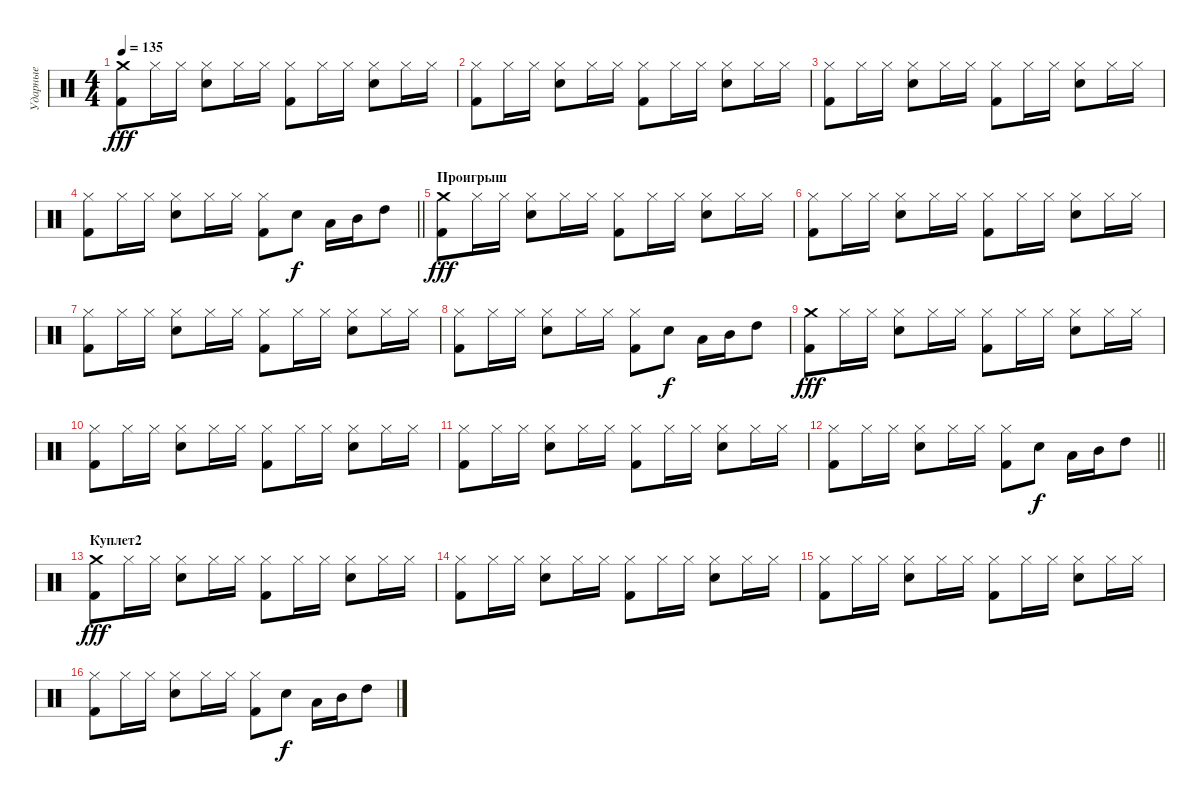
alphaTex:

\track ("Ударные" "Ударные") {instrument percussion}
\staff {score}
\articulation defaults
\ts (4 4)
\tempo 135
\clef neutral
\ks c
("Crash medium (hit)" "Kick (hit) 2").8{dy fff} "Hi-Hat (closed)".16 "Hi-Hat (closed)".16 ("Hi-Hat (closed)" "Electric Snare (hit)").8 "Hi-Hat (closed)".16 "Hi-Hat (closed)".16 ("Hi-Hat (closed)" "Kick (hit) 2").8 "Hi-Hat (closed)".16 "Hi-Hat (closed)".16 ("Hi-Hat (closed)" "Electric Snare (hit)").8 "Hi-Hat (closed)".16 "Hi-Hat (closed)".16 |
("Hi-Hat (closed)" "Kick (hit) 2").8 "Hi-Hat (closed)".16 "Hi-Hat (closed)".16 ("Hi-Hat (closed)" "Electric Snare (hit)").8 "Hi-Hat (closed)".16 "Hi-Hat (closed)".16 ("Hi-Hat (closed)" "Kick (hit) 2").8 "Hi-Hat (closed)".16 "Hi-Hat (closed)".16 ("Hi-Hat (closed)" "Electric Snare (hit)").8 "Hi-Hat (closed)".16 "Hi-Hat (closed)".16 |
("Hi-Hat (closed)" "Kick (hit) 2").8 "Hi-Hat (closed)".16 "Hi-Hat (closed)".16 ("Hi-Hat (closed)" "Electric Snare (hit)").8 "Hi-Hat (closed)".16 "Hi-Hat (closed)".16 ("Hi-Hat (closed)" "Kick (hit) 2").8 "Hi-Hat (closed)".16 "Hi-Hat (closed)".16 ("Hi-Hat (closed)" "Electric Snare (hit)").8 "Hi-Hat (closed)".16 "Hi-Hat (closed)".16 |
\barLineRight lightlight
("Hi-Hat (closed)" "Kick (hit) 2").8 "Hi-Hat (closed)".16 "Hi-Hat (closed)".16 ("Hi-Hat (closed)" "Electric Snare (hit)").8 "Hi-Hat (closed)".16 "Hi-Hat (closed)".16 ("Hi-Hat (closed)" "Kick (hit) 2").8 "Electric Snare (hit)".8{dy f} "Low Tom (hit)".16 "Mid Tom (hit)".16 "High Tom (hit)".8 |
\section ("" "Проигрыш")
("Crash medium (hit)" "Kick (hit) 2").8{dy fff} "Hi-Hat (closed)".16 "Hi-Hat (closed)".16 ("Hi-Hat (closed)" "Electric Snare (hit)").8 "Hi-Hat (closed)".16 "Hi-Hat (closed)".16 ("Hi-Hat (closed)" "Kick (hit) 2").8 "Hi-Hat (closed)".16 "Hi-Hat (closed)".16 ("Hi-Hat (closed)" "Electric Snare (hit)").8 "Hi-Hat (closed)".16 "Hi-Hat (closed)".16 |
("Hi-Hat (closed)" "Kick (hit) 2").8 "Hi-Hat (closed)".16 "Hi-Hat (closed)".16 ("Hi-Hat (closed)" "Electric Snare (hit)").8 "Hi-Hat (closed)".16 "Hi-Hat (closed)".16 ("Hi-Hat (closed)" "Kick (hit) 2").8 "Hi-Hat (closed)".16 "Hi-Hat (closed)".16 ("Hi-Hat (closed)" "Electric Snare (hit)").8 "Hi-Hat (closed)".16 "Hi-Hat (closed)".16 |
("Hi-Hat (closed)" "Kick (hit) 2").8 "Hi-Hat (closed)".16 "Hi-Hat (closed)".16 ("Hi-Hat (closed)" "Electric Snare (hit)").8 "Hi-Hat (closed)".16 "Hi-Hat (closed)".16 ("Hi-Hat (closed)" "Kick (hit) 2").8 "Hi-Hat (closed)".16 "Hi-Hat (closed)".16 ("Hi-Hat (closed)" "Electric Snare (hit)").8 "Hi-Hat (closed)".16 "Hi-Hat (closed)".16 |
("Hi-Hat (closed)" "Kick (hit) 2").8 "Hi-Hat (closed)".16 "Hi-Hat (closed)".16 ("Hi-Hat (closed)" "Electric Snare (hit)").8 "Hi-Hat (closed)".16 "Hi-Hat (closed)".16 ("Hi-Hat (closed)" "Kick (hit) 2").8 "Electric Snare (hit)".8{dy f} "Low Tom (hit)".16 "Mid Tom (hit)".16 "High Tom (hit)".8 |
("Crash medium (hit)" "Kick (hit) 2").8{dy fff} "Hi-Hat (closed)".16 "Hi-Hat (closed)".16 ("Hi-Hat (closed)" "Electric Snare (hit)").8 "Hi-Hat (closed)".16 "Hi-Hat (closed)".16 ("Hi-Hat (closed)" "Kick (hit) 2").8 "Hi-Hat (closed)".16 "Hi-Hat (closed)".16 ("Hi-Hat (closed)" "Electric Snare (hit)").8 "Hi-Hat (closed)".16 "Hi-Hat (closed)".16 |
("Hi-Hat (closed)" "Kick (hit) 2").8 "Hi-Hat (closed)".16 "Hi-Hat (closed)".16 ("Hi-Hat (closed)" "Electric Snare (hit)").8 "Hi-Hat (closed)".16 "Hi-Hat (closed)".16 ("Hi-Hat (closed)" "Kick (hit) 2").8 "Hi-Hat (closed)".16 "Hi-Hat (closed)".16 ("Hi-Hat (closed)" "Electric Snare (hit)").8 "Hi-Hat (closed)".16 "Hi-Hat (closed)".16 |
("Hi-Hat (closed)" "Kick (hit) 2").8 "Hi-Hat (closed)".16 "Hi-Hat (closed)".16 ("Hi-Hat (closed)" "Electric Snare (hit)").8 "Hi-Hat (closed)".16 "Hi-Hat (closed)".16 ("Hi-Hat (closed)" "Kick (hit) 2").8 "Hi-Hat (closed)".16 "Hi-Hat (closed)".16 ("Hi-Hat (closed)" "Electric Snare (hit)").8 "Hi-Hat (closed)".16 "Hi-Hat (closed)".16 |
\barLineRight lightlight
("Hi-Hat (closed)" "Kick (hit) 2").8 "Hi-Hat (closed)".16 "Hi-Hat (closed)".16 ("Hi-Hat (closed)" "Electric Snare (hit)").8 "Hi-Hat (closed)".16 "Hi-Hat (closed)".16 ("Hi-Hat (closed)" "Kick (hit) 2").8 "Electric Snare (hit)".8{dy f} "Low Tom (hit)".16 "Mid Tom (hit)".16 "High Tom (hit)".8 |
\section ("" "Куплет2")
("Crash medium (hit)" "Kick (hit) 2").8{dy fff} "Hi-Hat (closed)".16 "Hi-Hat (closed)".16 ("Hi-Hat (closed)" "Electric Snare (hit)").8 "Hi-Hat (closed)".16 "Hi-Hat (closed)".16 ("Hi-Hat (closed)" "Kick (hit) 2").8 "Hi-Hat (closed)".16 "Hi-Hat (closed)".16 ("Hi-Hat (closed)" "Electric Snare (hit)").8 "Hi-Hat (closed)".16 "Hi-Hat (closed)".16 |
("Hi-Hat (closed)" "Kick (hit) 2").8 "Hi-Hat (closed)".16 "Hi-Hat (closed)".16 ("Hi-Hat (closed)" "Electric Snare (hit)").8 "Hi-Hat (closed)".16 "Hi-Hat (closed)".16 ("Hi-Hat (closed)" "Kick (hit) 2").8 "Hi-Hat (closed)".16 "Hi-Hat (closed)".16 ("Hi-Hat (closed)" "Electric Snare (hit)").8 "Hi-Hat (closed)".16 "Hi-Hat (closed)".16 |
("Hi-Hat (closed)" "Kick (hit) 2").8 "Hi-Hat (closed)".16 "Hi-Hat (closed)".16 ("Hi-Hat (closed)" "Electric Snare (hit)").8 "Hi-Hat (closed)".16 "Hi-Hat (closed)".16 ("Hi-Hat (closed)" "Kick (hit) 2").8 "Hi-Hat (closed)".16 "Hi-Hat (closed)".16 ("Hi-Hat (closed)" "Electric Snare (hit)").8 "Hi-Hat (closed)".16 "Hi-Hat (closed)".16 |
("Hi-Hat (closed)" "Kick (hit) 2").8 "Hi-Hat (closed)".16 "Hi-Hat (closed)".16 ("Hi-Hat (closed)" "Electric Snare (hit)").8 "Hi-Hat (closed)".16 "Hi-Hat (closed)".16 ("Hi-Hat (closed)" "Kick (hit) 2").8 "Electric Snare (hit)".8{dy f} "Low Tom (hit)".16 "Mid Tom (hit)".16 "High Tom (hit)".8
